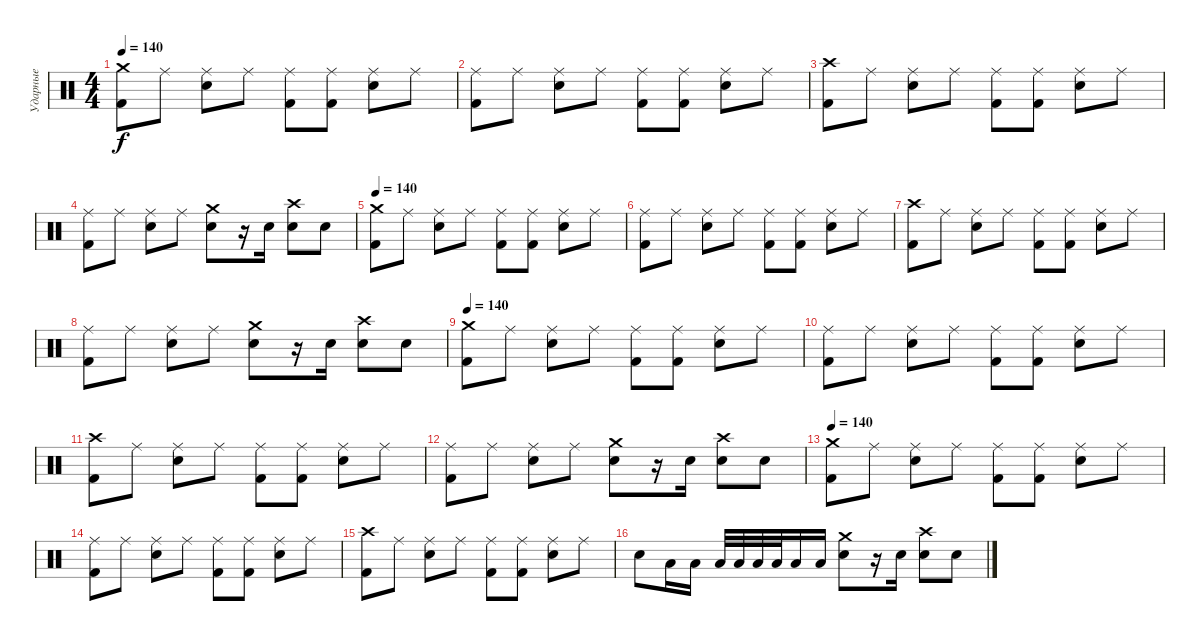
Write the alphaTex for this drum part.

\track ("Ударные" "Ударные") {instrument percussion}
\staff {score}
\articulation defaults
\ts (4 4)
\tempo 140
\clef neutral
\ks c
("Crash medium (hit)" "Kick (hit) 2").8{dy f} "Ride (middle)".8 ("Ride (middle)" "Electric Snare (hit)").8 "Ride (middle)".8 ("Ride (middle)" "Kick (hit) 2").8 ("Ride (middle)" "Kick (hit) 2").8 ("Ride (middle)" "Electric Snare (hit)").8 "Ride (middle)".8 |
("Ride (middle)" "Kick (hit) 2").8 "Ride (middle)".8 ("Ride (middle)" "Electric Snare (hit)").8 "Ride (middle)".8 ("Ride (middle)" "Kick (hit) 2").8 ("Ride (middle)" "Kick (hit) 2").8 ("Ride (middle)" "Electric Snare (hit)").8 "Ride (middle)".8 |
("Crash high (hit)" "Kick (hit) 2").8 "Ride (middle)".8 ("Ride (middle)" "Electric Snare (hit)").8 "Ride (middle)".8 ("Ride (middle)" "Kick (hit) 2").8 ("Ride (middle)" "Kick (hit) 2").8 ("Ride (middle)" "Electric Snare (hit)").8 "Ride (middle)".8 |
("Ride (middle)" "Kick (hit) 2").8 "Ride (middle)".8 ("Ride (middle)" "Electric Snare (hit)").8 "Ride (middle)".8 ("Crash medium (hit)" "Electric Snare (hit)").8 r.16 "Electric Snare (hit)".16 ("Crash high (hit)" "Electric Snare (hit)").8 "Electric Snare (hit)".8 |
\tempo 140
("Crash medium (hit)" "Kick (hit) 2").8 "Ride (middle)".8 ("Ride (middle)" "Electric Snare (hit)").8 "Ride (middle)".8 ("Ride (middle)" "Kick (hit) 2").8 ("Ride (middle)" "Kick (hit) 2").8 ("Ride (middle)" "Electric Snare (hit)").8 "Ride (middle)".8 |
("Ride (middle)" "Kick (hit) 2").8 "Ride (middle)".8 ("Ride (middle)" "Electric Snare (hit)").8 "Ride (middle)".8 ("Ride (middle)" "Kick (hit) 2").8 ("Ride (middle)" "Kick (hit) 2").8 ("Ride (middle)" "Electric Snare (hit)").8 "Ride (middle)".8 |
("Crash high (hit)" "Kick (hit) 2").8 "Ride (middle)".8 ("Ride (middle)" "Electric Snare (hit)").8 "Ride (middle)".8 ("Ride (middle)" "Kick (hit) 2").8 ("Ride (middle)" "Kick (hit) 2").8 ("Ride (middle)" "Electric Snare (hit)").8 "Ride (middle)".8 |
("Ride (middle)" "Kick (hit) 2").8 "Ride (middle)".8 ("Ride (middle)" "Electric Snare (hit)").8 "Ride (middle)".8 ("Crash medium (hit)" "Electric Snare (hit)").8 r.16 "Electric Snare (hit)".16 ("Crash high (hit)" "Electric Snare (hit)").8 "Electric Snare (hit)".8 |
\tempo 140
("Crash medium (hit)" "Kick (hit) 2").8 "Ride (middle)".8 ("Ride (middle)" "Electric Snare (hit)").8 "Ride (middle)".8 ("Ride (middle)" "Kick (hit) 2").8 ("Ride (middle)" "Kick (hit) 2").8 ("Ride (middle)" "Electric Snare (hit)").8 "Ride (middle)".8 |
("Ride (middle)" "Kick (hit) 2").8 "Ride (middle)".8 ("Ride (middle)" "Electric Snare (hit)").8 "Ride (middle)".8 ("Ride (middle)" "Kick (hit) 2").8 ("Ride (middle)" "Kick (hit) 2").8 ("Ride (middle)" "Electric Snare (hit)").8 "Ride (middle)".8 |
("Crash high (hit)" "Kick (hit) 2").8 "Ride (middle)".8 ("Ride (middle)" "Electric Snare (hit)").8 "Ride (middle)".8 ("Ride (middle)" "Kick (hit) 2").8 ("Ride (middle)" "Kick (hit) 2").8 ("Ride (middle)" "Electric Snare (hit)").8 "Ride (middle)".8 |
("Ride (middle)" "Kick (hit) 2").8 "Ride (middle)".8 ("Ride (middle)" "Electric Snare (hit)").8 "Ride (middle)".8 ("Crash medium (hit)" "Electric Snare (hit)").8 r.16 "Electric Snare (hit)".16 ("Crash high (hit)" "Electric Snare (hit)").8 "Electric Snare (hit)".8 |
\tempo 140
("Crash medium (hit)" "Kick (hit) 2").8 "Ride (middle)".8 ("Ride (middle)" "Electric Snare (hit)").8 "Ride (middle)".8 ("Ride (middle)" "Kick (hit) 2").8 ("Ride (middle)" "Kick (hit) 2").8 ("Ride (middle)" "Electric Snare (hit)").8 "Ride (middle)".8 |
("Ride (middle)" "Kick (hit) 2").8 "Ride (middle)".8 ("Ride (middle)" "Electric Snare (hit)").8 "Ride (middle)".8 ("Ride (middle)" "Kick (hit) 2").8 ("Ride (middle)" "Kick (hit) 2").8 ("Ride (middle)" "Electric Snare (hit)").8 "Ride (middle)".8 |
("Crash high (hit)" "Kick (hit) 2").8 "Ride (middle)".8 ("Ride (middle)" "Electric Snare (hit)").8 "Ride (middle)".8 ("Ride (middle)" "Kick (hit) 2").8 ("Ride (middle)" "Kick (hit) 2").8 ("Ride (middle)" "Electric Snare (hit)").8 "Ride (middle)".8 |
"Electric Snare (hit)".8 "Low Tom (hit)".16 "Low Tom (hit)".16 "Low Tom (hit)".32 "Low Tom (hit)".32 "Low Tom (hit)".32 "Low Tom (hit)".32 "Low Tom (hit)".16 "Low Tom (hit)".16 ("Crash medium (hit)" "Electric Snare (hit)").8 r.16 "Electric Snare (hit)".16 ("Crash high (hit)" "Electric Snare (hit)").8 "Electric Snare (hit)".8
